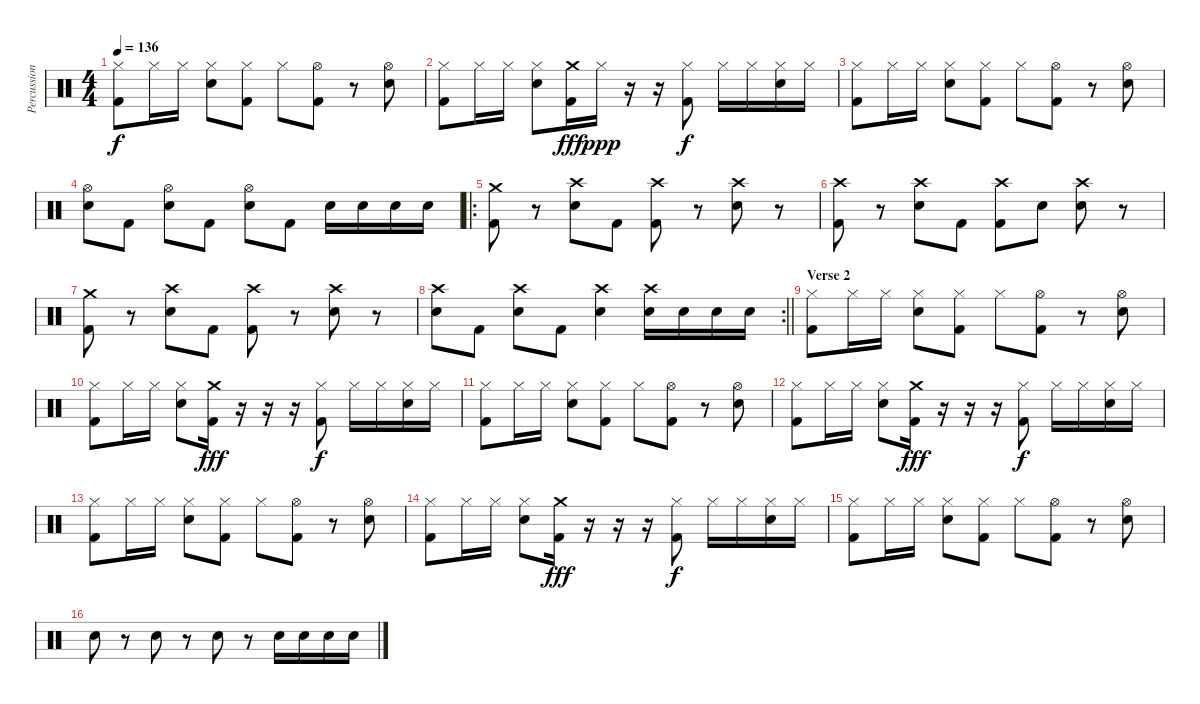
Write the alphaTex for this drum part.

\track ("Percussion" "Percussion") {instrument percussion}
\staff {score}
\articulation defaults
\ts (4 4)
\tempo 136
\clef neutral
\ks c
("Hi-Hat (closed)" "Kick (hit) 2").8{dy f} "Hi-Hat (closed)".16 "Hi-Hat (closed)".16 ("Hi-Hat (closed)" "Snare (hit) 2").8 ("Hi-Hat (closed)" "Kick (hit) 2").8 "Hi-Hat (closed)".8 ("Hi-Hat (open)" "Kick (hit) 2").8 r.8 ("Hi-Hat (open)" "Snare (hit) 2").8 |
("Hi-Hat (closed)" "Kick (hit) 2").8 "Hi-Hat (closed)".16 "Hi-Hat (closed)".16 ("Hi-Hat (closed)" "Snare (hit) 2").8 ("Crash medium (hit)" "Kick (hit) 2").16{dy fff} "Hi-Hat (closed)".16{dy ppp volume 0} r.16 r.16 ("Hi-Hat (closed)" "Kick (hit) 2").8{dy f volume 13} "Hi-Hat (closed)".16 "Hi-Hat (closed)".16 ("Hi-Hat (closed)" "Snare (hit) 2").16 "Hi-Hat (closed)".16 |
("Hi-Hat (closed)" "Kick (hit) 2").8 "Hi-Hat (closed)".16 "Hi-Hat (closed)".16 ("Hi-Hat (closed)" "Snare (hit) 2").8 ("Hi-Hat (closed)" "Kick (hit) 2").8 "Hi-Hat (closed)".8 ("Hi-Hat (open)" "Kick (hit) 2").8 r.8 ("Hi-Hat (open)" "Snare (hit) 2").8 |
("Hi-Hat (open)" "Snare (hit) 2").8 "Kick (hit) 2".8 ("Hi-Hat (open)" "Snare (hit) 2").8 "Kick (hit) 2".8 ("Hi-Hat (open)" "Snare (hit) 2").8 "Kick (hit) 2".8 "Snare (hit) 2".16 "Snare (hit) 2".16 "Snare (hit) 2".16 "Snare (hit) 2".16 |
\ro
("Crash medium (hit)" "Kick (hit) 2").8 r.8 ("Crash high (hit)" "Snare (hit) 2").8 "Kick (hit) 2".8 ("Crash high (hit)" "Kick (hit) 2").8 r.8 ("Crash high (hit)" "Snare (hit) 2").8 r.8 |
("Crash high (hit)" "Kick (hit) 2").8 r.8 ("Crash high (hit)" "Snare (hit) 2").8 "Kick (hit) 2".8 ("Crash high (hit)" "Kick (hit) 2").8 "Snare (hit) 2".8 ("Crash high (hit)" "Snare (hit) 2").8 r.8 |
("Crash medium (hit)" "Kick (hit) 2").8 r.8 ("Crash high (hit)" "Snare (hit) 2").8 "Kick (hit) 2".8 ("Crash high (hit)" "Kick (hit) 2").8 r.8 ("Crash high (hit)" "Snare (hit) 2").8 r.8 |
\rc 2
\barLineRight lightlight
("Crash high (hit)" "Snare (hit) 2").8 "Kick (hit) 2".8 ("Crash high (hit)" "Snare (hit) 2").8 "Kick (hit) 2".8 ("Crash high (hit)" "Snare (hit) 2").4 ("Crash high (hit)" "Snare (hit) 2").16 "Snare (hit) 2".16 "Snare (hit) 2".16 "Snare (hit) 2".16 |
\section ("" "Verse 2")
("Hi-Hat (closed)" "Kick (hit) 2").8 "Hi-Hat (closed)".16 "Hi-Hat (closed)".16 ("Hi-Hat (closed)" "Snare (hit) 2").8 ("Hi-Hat (closed)" "Kick (hit) 2").8 "Hi-Hat (closed)".8 ("Hi-Hat (open)" "Kick (hit) 2").8 r.8 ("Hi-Hat (open)" "Snare (hit) 2").8 |
("Hi-Hat (closed)" "Kick (hit) 2").8 "Hi-Hat (closed)".16 "Hi-Hat (closed)".16 ("Hi-Hat (closed)" "Snare (hit) 2").8 ("Crash medium (hit)" "Kick (hit) 2").16{dy fff} r.16 r.16{volume 0} r.16 ("Hi-Hat (closed)" "Kick (hit) 2").8{dy f volume 13} "Hi-Hat (closed)".16 "Hi-Hat (closed)".16 ("Hi-Hat (closed)" "Snare (hit) 2").16 "Hi-Hat (closed)".16 |
("Hi-Hat (closed)" "Kick (hit) 2").8 "Hi-Hat (closed)".16 "Hi-Hat (closed)".16 ("Hi-Hat (closed)" "Snare (hit) 2").8 ("Hi-Hat (closed)" "Kick (hit) 2").8 "Hi-Hat (closed)".8 ("Hi-Hat (open)" "Kick (hit) 2").8 r.8 ("Hi-Hat (open)" "Snare (hit) 2").8 |
("Hi-Hat (closed)" "Kick (hit) 2").8 "Hi-Hat (closed)".16 "Hi-Hat (closed)".16 ("Hi-Hat (closed)" "Snare (hit) 2").8 ("Crash medium (hit)" "Kick (hit) 2").16{dy fff} r.16 r.16{volume 0} r.16 ("Hi-Hat (closed)" "Kick (hit) 2").8{dy f volume 13} "Hi-Hat (closed)".16 "Hi-Hat (closed)".16 ("Hi-Hat (closed)" "Snare (hit) 2").16 "Hi-Hat (closed)".16 |
("Hi-Hat (closed)" "Kick (hit) 2").8 "Hi-Hat (closed)".16 "Hi-Hat (closed)".16 ("Hi-Hat (closed)" "Snare (hit) 2").8 ("Hi-Hat (closed)" "Kick (hit) 2").8 "Hi-Hat (closed)".8 ("Hi-Hat (open)" "Kick (hit) 2").8 r.8 ("Hi-Hat (open)" "Snare (hit) 2").8 |
("Hi-Hat (closed)" "Kick (hit) 2").8 "Hi-Hat (closed)".16 "Hi-Hat (closed)".16 ("Hi-Hat (closed)" "Snare (hit) 2").8 ("Crash medium (hit)" "Kick (hit) 2").16{dy fff} r.16 r.16{volume 0} r.16 ("Hi-Hat (closed)" "Kick (hit) 2").8{dy f volume 13} "Hi-Hat (closed)".16 "Hi-Hat (closed)".16 ("Hi-Hat (closed)" "Snare (hit) 2").16 "Hi-Hat (closed)".16 |
("Hi-Hat (closed)" "Kick (hit) 2").8 "Hi-Hat (closed)".16 "Hi-Hat (closed)".16 ("Hi-Hat (closed)" "Snare (hit) 2").8 ("Hi-Hat (closed)" "Kick (hit) 2").8 "Hi-Hat (closed)".8 ("Hi-Hat (open)" "Kick (hit) 2").8 r.8 ("Hi-Hat (open)" "Snare (hit) 2").8 |
"Snare (hit) 2".8 r.8 "Snare (hit) 2".8 r.8 "Snare (hit) 2".8 r.8 "Snare (hit) 2".16 "Snare (hit) 2".16 "Snare (hit) 2".16 "Snare (hit) 2".16
